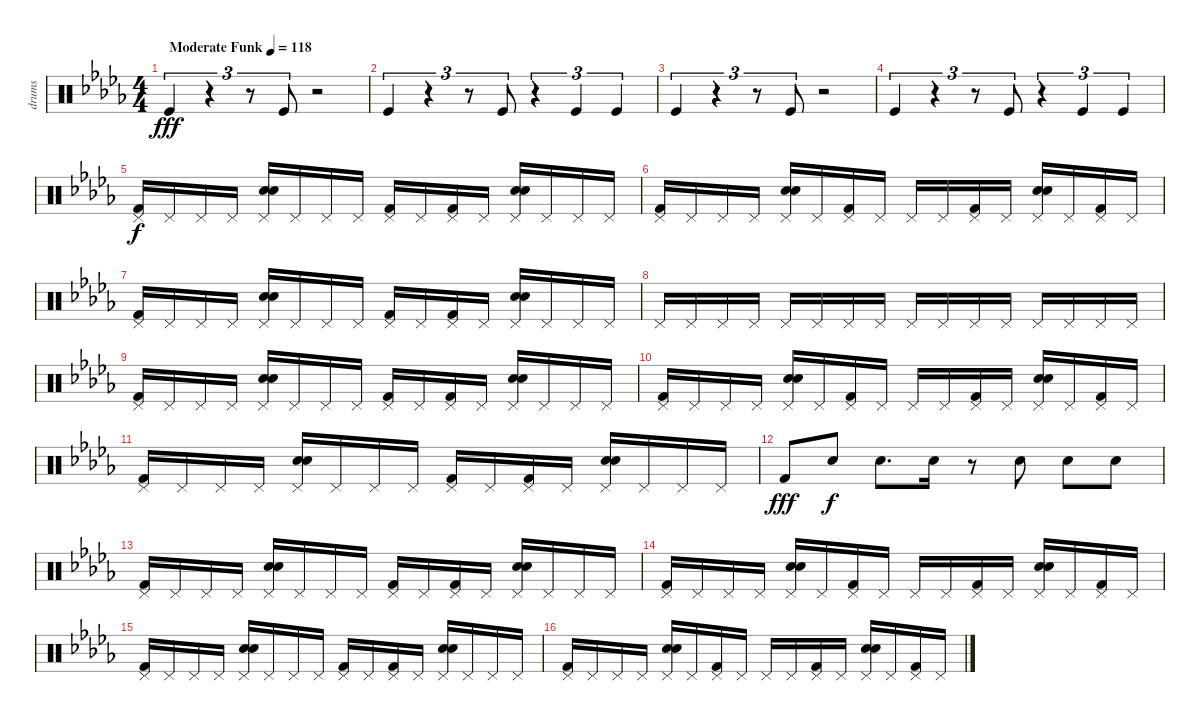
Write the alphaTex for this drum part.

\track ("drums" "drums") {instrument percussion}
\staff {score}
\articulation defaults
\ts (4 4)
\tempo (118 "Moderate Funk")
\clef neutral
\ks db "Kick (hit)".4{tu (3 2) dy fff}
r.4{tu (3 2)} r.8{tu (3 2)} "Kick (hit)".8{tu (3 2)} r.2 |
"Kick (hit)".4{tu (3 2)} r.4{tu (3 2)} r.8{tu (3 2)} "Kick (hit)".8{tu (3 2)} r.4{tu (3 2)} "Kick (hit)".4{tu (3 2)} "Kick (hit)".4{tu (3 2)} |
"Kick (hit)".4{tu (3 2)} r.4{tu (3 2)} r.8{tu (3 2)} "Kick (hit)".8{tu (3 2)} r.2 |
"Kick (hit)".4{tu (3 2)} r.4{tu (3 2)} r.8{tu (3 2)} "Kick (hit)".8{tu (3 2)} r.4{tu (3 2)} "Kick (hit)".4{tu (3 2)} "Kick (hit)".4{tu (3 2)} |
("Pedal Hi-Hat (hit)" "Kick (hit) 2").16{dy f} "Pedal Hi-Hat (hit)".16 "Pedal Hi-Hat (hit)".16 "Pedal Hi-Hat (hit)".16 ("Pedal Hi-Hat (hit)" "Hand Clap (hit)" "Snare (hit) 2").16 "Pedal Hi-Hat (hit)".16 "Pedal Hi-Hat (hit)".16 "Pedal Hi-Hat (hit)".16 ("Pedal Hi-Hat (hit)" "Kick (hit) 2").16 "Pedal Hi-Hat (hit)".16 ("Pedal Hi-Hat (hit)" "Kick (hit) 2").16 "Pedal Hi-Hat (hit)".16 ("Pedal Hi-Hat (hit)" "Hand Clap (hit)" "Snare (hit) 2").16 "Pedal Hi-Hat (hit)".16 "Pedal Hi-Hat (hit)".16 "Pedal Hi-Hat (hit)".16 |
("Pedal Hi-Hat (hit)" "Kick (hit) 2").16 "Pedal Hi-Hat (hit)".16 "Pedal Hi-Hat (hit)".16 "Pedal Hi-Hat (hit)".16 ("Pedal Hi-Hat (hit)" "Hand Clap (hit)" "Snare (hit) 2").16 "Pedal Hi-Hat (hit)".16 ("Pedal Hi-Hat (hit)" "Kick (hit) 2").16 "Pedal Hi-Hat (hit)".16 "Pedal Hi-Hat (hit)".16 "Pedal Hi-Hat (hit)".16 ("Pedal Hi-Hat (hit)" "Kick (hit) 2").16 "Pedal Hi-Hat (hit)".16 ("Pedal Hi-Hat (hit)" "Hand Clap (hit)" "Snare (hit) 2").16 "Pedal Hi-Hat (hit)".16 ("Pedal Hi-Hat (hit)" "Kick (hit) 2").16 "Pedal Hi-Hat (hit)".16 |
("Pedal Hi-Hat (hit)" "Kick (hit) 2").16 "Pedal Hi-Hat (hit)".16 "Pedal Hi-Hat (hit)".16 "Pedal Hi-Hat (hit)".16 ("Pedal Hi-Hat (hit)" "Hand Clap (hit)" "Snare (hit) 2").16 "Pedal Hi-Hat (hit)".16 "Pedal Hi-Hat (hit)".16 "Pedal Hi-Hat (hit)".16 ("Pedal Hi-Hat (hit)" "Kick (hit) 2").16 "Pedal Hi-Hat (hit)".16 ("Pedal Hi-Hat (hit)" "Kick (hit) 2").16 "Pedal Hi-Hat (hit)".16 ("Pedal Hi-Hat (hit)" "Hand Clap (hit)" "Snare (hit) 2").16 "Pedal Hi-Hat (hit)".16 "Pedal Hi-Hat (hit)".16 "Pedal Hi-Hat (hit)".16 |
"Pedal Hi-Hat (hit)".16 "Pedal Hi-Hat (hit)".16 "Pedal Hi-Hat (hit)".16 "Pedal Hi-Hat (hit)".16 "Pedal Hi-Hat (hit)".16 "Pedal Hi-Hat (hit)".16 "Pedal Hi-Hat (hit)".16 "Pedal Hi-Hat (hit)".16 "Pedal Hi-Hat (hit)".16 "Pedal Hi-Hat (hit)".16 "Pedal Hi-Hat (hit)".16 "Pedal Hi-Hat (hit)".16 "Pedal Hi-Hat (hit)".16 "Pedal Hi-Hat (hit)".16 "Pedal Hi-Hat (hit)".16 "Pedal Hi-Hat (hit)".16 |
("Pedal Hi-Hat (hit)" "Kick (hit) 2").16 "Pedal Hi-Hat (hit)".16 "Pedal Hi-Hat (hit)".16 "Pedal Hi-Hat (hit)".16 ("Pedal Hi-Hat (hit)" "Hand Clap (hit)" "Snare (hit) 2").16 "Pedal Hi-Hat (hit)".16 "Pedal Hi-Hat (hit)".16 "Pedal Hi-Hat (hit)".16 ("Pedal Hi-Hat (hit)" "Kick (hit) 2").16 "Pedal Hi-Hat (hit)".16 ("Pedal Hi-Hat (hit)" "Kick (hit) 2").16 "Pedal Hi-Hat (hit)".16 ("Pedal Hi-Hat (hit)" "Hand Clap (hit)" "Snare (hit) 2").16 "Pedal Hi-Hat (hit)".16 "Pedal Hi-Hat (hit)".16 "Pedal Hi-Hat (hit)".16 |
("Pedal Hi-Hat (hit)" "Kick (hit) 2").16 "Pedal Hi-Hat (hit)".16 "Pedal Hi-Hat (hit)".16 "Pedal Hi-Hat (hit)".16 ("Pedal Hi-Hat (hit)" "Hand Clap (hit)" "Snare (hit) 2").16 "Pedal Hi-Hat (hit)".16 ("Pedal Hi-Hat (hit)" "Kick (hit) 2").16 "Pedal Hi-Hat (hit)".16 "Pedal Hi-Hat (hit)".16 "Pedal Hi-Hat (hit)".16 ("Pedal Hi-Hat (hit)" "Kick (hit) 2").16 "Pedal Hi-Hat (hit)".16 ("Pedal Hi-Hat (hit)" "Hand Clap (hit)" "Snare (hit) 2").16 "Pedal Hi-Hat (hit)".16 ("Pedal Hi-Hat (hit)" "Kick (hit) 2").16 "Pedal Hi-Hat (hit)".16 |
("Pedal Hi-Hat (hit)" "Kick (hit) 2").16 "Pedal Hi-Hat (hit)".16 "Pedal Hi-Hat (hit)".16 "Pedal Hi-Hat (hit)".16 ("Pedal Hi-Hat (hit)" "Hand Clap (hit)" "Snare (hit) 2").16 "Pedal Hi-Hat (hit)".16 "Pedal Hi-Hat (hit)".16 "Pedal Hi-Hat (hit)".16 ("Pedal Hi-Hat (hit)" "Kick (hit) 2").16 "Pedal Hi-Hat (hit)".16 ("Pedal Hi-Hat (hit)" "Kick (hit) 2").16 "Pedal Hi-Hat (hit)".16 ("Pedal Hi-Hat (hit)" "Hand Clap (hit)" "Snare (hit) 2").16 "Pedal Hi-Hat (hit)".16 "Pedal Hi-Hat (hit)".16 "Pedal Hi-Hat (hit)".16 |
"Kick (hit) 2".8{dy fff} "Snare (hit) 2".8{dy f} "Snare (hit) 2".8{d} "Snare (hit) 2".16 r.8 "Snare (hit) 2".8 "Snare (hit) 2".8 "Snare (hit) 2".8 |
("Pedal Hi-Hat (hit)" "Kick (hit) 2").16 "Pedal Hi-Hat (hit)".16 "Pedal Hi-Hat (hit)".16 "Pedal Hi-Hat (hit)".16 ("Pedal Hi-Hat (hit)" "Hand Clap (hit)" "Snare (hit) 2").16 "Pedal Hi-Hat (hit)".16 "Pedal Hi-Hat (hit)".16 "Pedal Hi-Hat (hit)".16 ("Pedal Hi-Hat (hit)" "Kick (hit) 2").16 "Pedal Hi-Hat (hit)".16 ("Pedal Hi-Hat (hit)" "Kick (hit) 2").16 "Pedal Hi-Hat (hit)".16 ("Pedal Hi-Hat (hit)" "Hand Clap (hit)" "Snare (hit) 2").16 "Pedal Hi-Hat (hit)".16 "Pedal Hi-Hat (hit)".16 "Pedal Hi-Hat (hit)".16 |
("Pedal Hi-Hat (hit)" "Kick (hit) 2").16 "Pedal Hi-Hat (hit)".16 "Pedal Hi-Hat (hit)".16 "Pedal Hi-Hat (hit)".16 ("Pedal Hi-Hat (hit)" "Hand Clap (hit)" "Snare (hit) 2").16 "Pedal Hi-Hat (hit)".16 ("Pedal Hi-Hat (hit)" "Kick (hit) 2").16 "Pedal Hi-Hat (hit)".16 "Pedal Hi-Hat (hit)".16 "Pedal Hi-Hat (hit)".16 ("Pedal Hi-Hat (hit)" "Kick (hit) 2").16 "Pedal Hi-Hat (hit)".16 ("Pedal Hi-Hat (hit)" "Hand Clap (hit)" "Snare (hit) 2").16 "Pedal Hi-Hat (hit)".16 ("Pedal Hi-Hat (hit)" "Kick (hit) 2").16 "Pedal Hi-Hat (hit)".16 |
("Pedal Hi-Hat (hit)" "Kick (hit) 2").16 "Pedal Hi-Hat (hit)".16 "Pedal Hi-Hat (hit)".16 "Pedal Hi-Hat (hit)".16 ("Pedal Hi-Hat (hit)" "Hand Clap (hit)" "Snare (hit) 2").16 "Pedal Hi-Hat (hit)".16 "Pedal Hi-Hat (hit)".16 "Pedal Hi-Hat (hit)".16 ("Pedal Hi-Hat (hit)" "Kick (hit) 2").16 "Pedal Hi-Hat (hit)".16 ("Pedal Hi-Hat (hit)" "Kick (hit) 2").16 "Pedal Hi-Hat (hit)".16 ("Pedal Hi-Hat (hit)" "Hand Clap (hit)" "Snare (hit) 2").16 "Pedal Hi-Hat (hit)".16 "Pedal Hi-Hat (hit)".16 "Pedal Hi-Hat (hit)".16 |
("Pedal Hi-Hat (hit)" "Kick (hit) 2").16 "Pedal Hi-Hat (hit)".16 "Pedal Hi-Hat (hit)".16 "Pedal Hi-Hat (hit)".16 ("Pedal Hi-Hat (hit)" "Hand Clap (hit)" "Snare (hit) 2").16 "Pedal Hi-Hat (hit)".16 ("Pedal Hi-Hat (hit)" "Kick (hit) 2").16 "Pedal Hi-Hat (hit)".16 "Pedal Hi-Hat (hit)".16 "Pedal Hi-Hat (hit)".16 ("Pedal Hi-Hat (hit)" "Kick (hit) 2").16 "Pedal Hi-Hat (hit)".16 ("Pedal Hi-Hat (hit)" "Hand Clap (hit)" "Snare (hit) 2").16 "Pedal Hi-Hat (hit)".16 ("Pedal Hi-Hat (hit)" "Kick (hit) 2").16 "Pedal Hi-Hat (hit)".16
